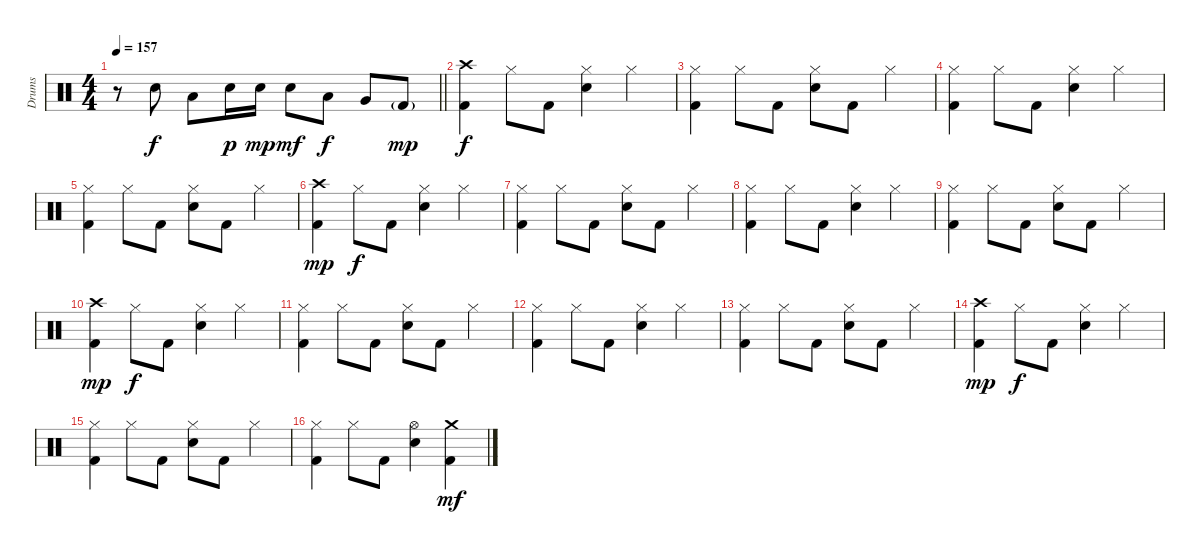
\track ("Drums" "Drums") {instrument percussion}
\staff {score}
\articulation defaults
\ts (4 4)
\tempo 157
\clef neutral
\barLineRight lightlight
\ks c
r.8{dy f} "Electric Snare (hit)".8 "Low Tom (hit)".8 "Electric Snare (hit)".16{dy p} "Electric Snare (hit)".16{dy mp} "Electric Snare (hit)".8{dy mf} "Low Tom (hit)".8{dy f} "Very Low Tom (hit)".8 "Kick (hit) 2"{g}.8{dy mp} |
\section ("" "")
("Crash high (hit)" "Kick (hit) 2").4{dy f volume 12} "Hi-Hat (closed)".8 "Kick (hit) 2".8 ("Hi-Hat (closed)" "Electric Snare (hit)").4 "Hi-Hat (closed)".4 |
("Hi-Hat (closed)" "Kick (hit) 2").4 "Hi-Hat (closed)".8 "Kick (hit) 2".8 ("Hi-Hat (closed)" "Electric Snare (hit)").8 "Kick (hit) 2".8 "Hi-Hat (closed)".4 |
("Hi-Hat (closed)" "Kick (hit) 2").4 "Hi-Hat (closed)".8 "Kick (hit) 2".8 ("Hi-Hat (closed)" "Electric Snare (hit)").4 "Hi-Hat (closed)".4 |
("Hi-Hat (closed)" "Kick (hit) 2").4 "Hi-Hat (closed)".8 "Kick (hit) 2".8 ("Hi-Hat (closed)" "Electric Snare (hit)").8 "Kick (hit) 2".8 "Hi-Hat (closed)".4 |
("Crash high (hit)" "Kick (hit) 2").4{dy mp} "Hi-Hat (closed)".8{dy f} "Kick (hit) 2".8 ("Hi-Hat (closed)" "Electric Snare (hit)").4 "Hi-Hat (closed)".4 |
("Hi-Hat (closed)" "Kick (hit) 2").4 "Hi-Hat (closed)".8 "Kick (hit) 2".8 ("Hi-Hat (closed)" "Electric Snare (hit)").8 "Kick (hit) 2".8 "Hi-Hat (closed)".4 |
("Hi-Hat (closed)" "Kick (hit) 2").4 "Hi-Hat (closed)".8 "Kick (hit) 2".8 ("Hi-Hat (closed)" "Electric Snare (hit)").4 "Hi-Hat (closed)".4 |
("Hi-Hat (closed)" "Kick (hit) 2").4 "Hi-Hat (closed)".8 "Kick (hit) 2".8 ("Hi-Hat (closed)" "Electric Snare (hit)").8 "Kick (hit) 2".8 "Hi-Hat (closed)".4 |
("Crash high (hit)" "Kick (hit) 2").4{dy mp} "Hi-Hat (closed)".8{dy f} "Kick (hit) 2".8 ("Hi-Hat (closed)" "Electric Snare (hit)").4 "Hi-Hat (closed)".4 |
("Hi-Hat (closed)" "Kick (hit) 2").4 "Hi-Hat (closed)".8 "Kick (hit) 2".8 ("Hi-Hat (closed)" "Electric Snare (hit)").8 "Kick (hit) 2".8 "Hi-Hat (closed)".4 |
("Hi-Hat (closed)" "Kick (hit) 2").4 "Hi-Hat (closed)".8 "Kick (hit) 2".8 ("Hi-Hat (closed)" "Electric Snare (hit)").4 "Hi-Hat (closed)".4 |
("Hi-Hat (closed)" "Kick (hit) 2").4 "Hi-Hat (closed)".8 "Kick (hit) 2".8 ("Hi-Hat (closed)" "Electric Snare (hit)").8 "Kick (hit) 2".8 "Hi-Hat (closed)".4 |
("Crash high (hit)" "Kick (hit) 2").4{dy mp} "Hi-Hat (closed)".8{dy f} "Kick (hit) 2".8 ("Hi-Hat (closed)" "Electric Snare (hit)").4 "Hi-Hat (closed)".4 |
("Hi-Hat (closed)" "Kick (hit) 2").4 "Hi-Hat (closed)".8 "Kick (hit) 2".8 ("Hi-Hat (closed)" "Electric Snare (hit)").8 "Kick (hit) 2".8 "Hi-Hat (closed)".4 |
("Hi-Hat (closed)" "Kick (hit) 2").4 "Hi-Hat (closed)".8 "Kick (hit) 2".8 ("Hi-Hat (open)" "Electric Snare (hit)").4 ("Crash medium (hit)" "Kick (hit) 2").4{dy mf}
